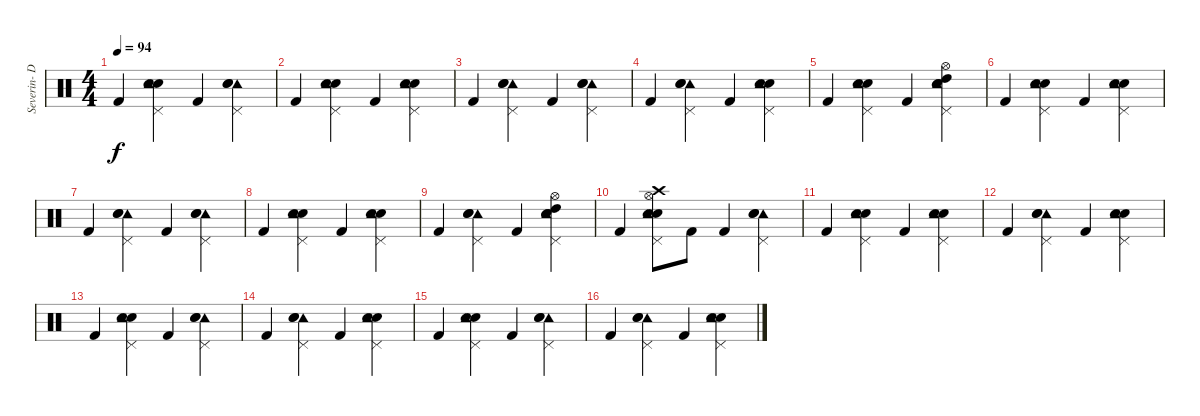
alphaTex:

\track ("Severin- Drums" "Severin- D") {instrument percussion}
\staff {score}
\articulation defaults
\ts (4 4)
\tempo 94
\clef neutral
\ks c "Kick (hit) 2".4{dy f}
("Snare (hit) 2" "Electric Snare (hit)" "Pedal Hi-Hat (hit)" "Tambourine (hit)").4 "Kick (hit) 2".4 ("Tambourine (hit)" "Electric Snare (hit)" "Snare (hit) 2" "Pedal Hi-Hat (hit)").4 |
"Kick (hit) 2".4 ("Snare (hit) 2" "Electric Snare (hit)" "Pedal Hi-Hat (hit)" "Tambourine (hit)").4 "Kick (hit) 2".4 ("Snare (hit) 2" "Electric Snare (hit)" "Pedal Hi-Hat (hit)" "Tambourine (hit)").4 |
"Kick (hit) 2".4 ("Tambourine (hit)" "Pedal Hi-Hat (hit)" "Electric Snare (hit)" "Snare (hit) 2").4 "Kick (hit) 2".4 ("Tambourine (hit)" "Electric Snare (hit)" "Snare (hit) 2" "Pedal Hi-Hat (hit)").4 |
"Kick (hit) 2".4 ("Tambourine (hit)" "Pedal Hi-Hat (hit)" "Electric Snare (hit)" "Snare (hit) 2").4 "Kick (hit) 2".4 ("Snare (hit) 2" "Electric Snare (hit)" "Pedal Hi-Hat (hit)" "Tambourine (hit)").4 |
"Kick (hit) 2".4 ("Snare (hit) 2" "Electric Snare (hit)" "Pedal Hi-Hat (hit)" "Tambourine (hit)").4 "Kick (hit) 2".4 ("Tambourine (hit)" "Electric Snare (hit)" "Snare (hit) 2" "Pedal Hi-Hat (hit)" "Hi-Hat (open)" "High Tom (hit)").4 |
"Kick (hit) 2".4 ("Snare (hit) 2" "Electric Snare (hit)" "Pedal Hi-Hat (hit)" "Tambourine (hit)").4 "Kick (hit) 2".4 ("Snare (hit) 2" "Electric Snare (hit)" "Pedal Hi-Hat (hit)" "Tambourine (hit)").4 |
"Kick (hit) 2".4 ("Tambourine (hit)" "Pedal Hi-Hat (hit)" "Electric Snare (hit)" "Snare (hit) 2").4 "Kick (hit) 2".4 ("Tambourine (hit)" "Electric Snare (hit)" "Snare (hit) 2" "Pedal Hi-Hat (hit)").4 |
"Kick (hit) 2".4 ("Snare (hit) 2" "Electric Snare (hit)" "Pedal Hi-Hat (hit)" "Tambourine (hit)").4 "Kick (hit) 2".4 ("Snare (hit) 2" "Electric Snare (hit)" "Pedal Hi-Hat (hit)" "Tambourine (hit)").4 |
"Kick (hit) 2".4 ("Tambourine (hit)" "Pedal Hi-Hat (hit)" "Electric Snare (hit)" "Snare (hit) 2").4 "Kick (hit) 2".4 ("Tambourine (hit)" "Electric Snare (hit)" "Snare (hit) 2" "Pedal Hi-Hat (hit)" "Hi-Hat (open)" "High Tom (hit)").4 |
"Kick (hit) 2".4 ("Snare (hit) 2" "Electric Snare (hit)" "Pedal Hi-Hat (hit)" "Tambourine (hit)" "Crash high (hit)" "Hi-Hat (open)").8 "Kick (hit) 2".8 "Kick (hit) 2".4 ("Tambourine (hit)" "Pedal Hi-Hat (hit)" "Electric Snare (hit)" "Snare (hit) 2").4 |
"Kick (hit) 2".4 ("Snare (hit) 2" "Electric Snare (hit)" "Pedal Hi-Hat (hit)" "Tambourine (hit)").4 "Kick (hit) 2".4 ("Snare (hit) 2" "Electric Snare (hit)" "Pedal Hi-Hat (hit)" "Tambourine (hit)").4 |
"Kick (hit) 2".4 ("Tambourine (hit)" "Electric Snare (hit)" "Snare (hit) 2" "Pedal Hi-Hat (hit)").4 "Kick (hit) 2".4 ("Snare (hit) 2" "Electric Snare (hit)" "Pedal Hi-Hat (hit)" "Tambourine (hit)").4 |
"Kick (hit) 2".4 ("Snare (hit) 2" "Electric Snare (hit)" "Pedal Hi-Hat (hit)" "Tambourine (hit)").4 "Kick (hit) 2".4 ("Tambourine (hit)" "Pedal Hi-Hat (hit)" "Electric Snare (hit)" "Snare (hit) 2").4 |
"Kick (hit) 2".4 ("Tambourine (hit)" "Electric Snare (hit)" "Snare (hit) 2" "Pedal Hi-Hat (hit)").4 "Kick (hit) 2".4 ("Snare (hit) 2" "Electric Snare (hit)" "Pedal Hi-Hat (hit)" "Tambourine (hit)").4 |
"Kick (hit) 2".4 ("Snare (hit) 2" "Electric Snare (hit)" "Pedal Hi-Hat (hit)" "Tambourine (hit)").4 "Kick (hit) 2".4 ("Tambourine (hit)" "Pedal Hi-Hat (hit)" "Electric Snare (hit)" "Snare (hit) 2").4 |
"Kick (hit) 2".4 ("Tambourine (hit)" "Electric Snare (hit)" "Snare (hit) 2" "Pedal Hi-Hat (hit)").4 "Kick (hit) 2".4 ("Snare (hit) 2" "Electric Snare (hit)" "Pedal Hi-Hat (hit)" "Tambourine (hit)").4
